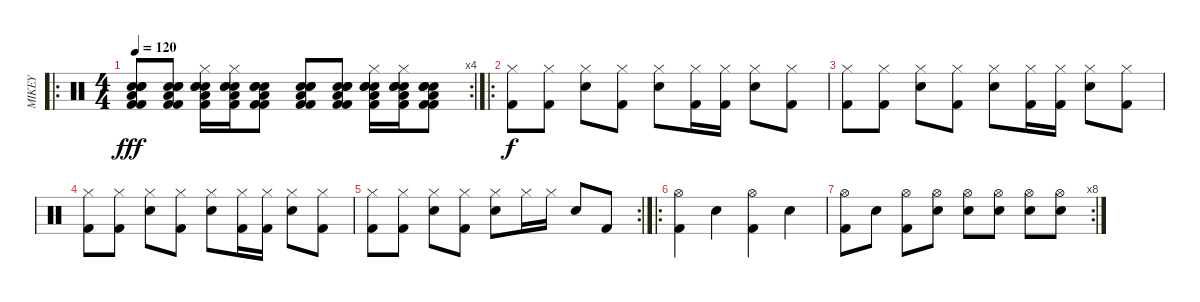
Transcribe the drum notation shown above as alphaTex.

\track ("MIKEY" "MIKEY") {instrument percussion}
\staff {score}
\articulation defaults
\ro
\rc 4
\ts (4 4)
\tempo 120
\clef neutral
\ks c
("Low Floor Tom (hit)" "Electric Snare (hit)" "Snare (hit) 2" "Snare (hit) 2" "Kick (hit) 2" "Kick (hit) 2").8{dy fff} ("Low Floor Tom (hit)" "Electric Snare (hit)" "Snare (hit) 2" "Snare (hit) 2" "Kick (hit) 2" "Kick (hit) 2").8 ("Low Floor Tom (hit)" "Electric Snare (hit)" "Snare (hit) 2" "Snare (hit) 2" "Hi-Hat (closed)" "Kick (hit) 2").16 ("Low Floor Tom (hit)" "Electric Snare (hit)" "Snare (hit) 2" "Snare (hit) 2" "Hi-Hat (closed)" "Kick (hit) 2").16 ("Low Floor Tom (hit)" "Electric Snare (hit)" "Snare (hit) 2" "Snare (hit) 2" "Kick (hit) 2" "Kick (hit) 2").8 ("Low Floor Tom (hit)" "Electric Snare (hit)" "Snare (hit) 2" "Snare (hit) 2" "Kick (hit) 2" "Kick (hit) 2").8 ("Low Floor Tom (hit)" "Electric Snare (hit)" "Snare (hit) 2" "Snare (hit) 2" "Kick (hit) 2" "Kick (hit) 2").8 ("Low Floor Tom (hit)" "Electric Snare (hit)" "Snare (hit) 2" "Snare (hit) 2" "Hi-Hat (closed)" "Kick (hit) 2").16 ("Low Floor Tom (hit)" "Electric Snare (hit)" "Snare (hit) 2" "Snare (hit) 2" "Hi-Hat (closed)" "Kick (hit) 2").16 ("Low Floor Tom (hit)" "Electric Snare (hit)" "Snare (hit) 2" "Snare (hit) 2" "Kick (hit) 2" "Kick (hit) 2").8 |
\ro
("Hi-Hat (closed)" "Kick (hit) 2").8{dy f} ("Hi-Hat (closed)" "Kick (hit) 2").8 ("Hi-Hat (closed)" "Electric Snare (hit)").8 ("Hi-Hat (closed)" "Kick (hit) 2").8 ("Hi-Hat (closed)" "Electric Snare (hit)").8 ("Hi-Hat (closed)" "Kick (hit) 2").16 ("Hi-Hat (closed)" "Kick (hit) 2").16 ("Hi-Hat (closed)" "Snare (hit) 2").8 ("Hi-Hat (closed)" "Kick (hit) 2").8 |
("Hi-Hat (closed)" "Kick (hit) 2").8 ("Hi-Hat (closed)" "Kick (hit) 2").8 ("Hi-Hat (closed)" "Electric Snare (hit)").8 ("Hi-Hat (closed)" "Kick (hit) 2").8 ("Hi-Hat (closed)" "Electric Snare (hit)").8 ("Hi-Hat (closed)" "Kick (hit) 2").16 ("Hi-Hat (closed)" "Kick (hit) 2").16 ("Hi-Hat (closed)" "Snare (hit) 2").8 ("Hi-Hat (closed)" "Kick (hit) 2").8 |
("Hi-Hat (closed)" "Kick (hit) 2").8 ("Hi-Hat (closed)" "Kick (hit) 2").8 ("Hi-Hat (closed)" "Electric Snare (hit)").8 ("Hi-Hat (closed)" "Kick (hit) 2").8 ("Hi-Hat (closed)" "Electric Snare (hit)").8 ("Hi-Hat (closed)" "Kick (hit) 2").16 ("Hi-Hat (closed)" "Kick (hit) 2").16 ("Hi-Hat (closed)" "Snare (hit) 2").8 ("Hi-Hat (closed)" "Kick (hit) 2").8 |
\rc 2
("Hi-Hat (closed)" "Kick (hit) 2").8 ("Hi-Hat (closed)" "Kick (hit) 2").8 ("Hi-Hat (closed)" "Electric Snare (hit)").8 ("Hi-Hat (closed)" "Kick (hit) 2").8 ("Hi-Hat (closed)" "Electric Snare (hit)").8 "Hi-Hat (closed)".16 "Hi-Hat (closed)".16 "Snare (hit) 2".8 "Kick (hit) 2".8 |
\ro
("Hi-Hat (open)" "Kick (hit) 2").4 "Snare (hit) 2".4 ("Hi-Hat (open)" "Kick (hit) 2").4 "Snare (hit) 2".4 |
\rc 8
("Hi-Hat (open)" "Kick (hit) 2").8 "Snare (hit) 2".8 ("Hi-Hat (open)" "Kick (hit) 2").8 ("Hi-Hat (open)" "Snare (hit) 2").8 ("Hi-Hat (open)" "Snare (hit) 2").8 ("Hi-Hat (open)" "Snare (hit) 2").8 ("Hi-Hat (open)" "Snare (hit) 2").8 ("Hi-Hat (open)" "Snare (hit) 2").8
